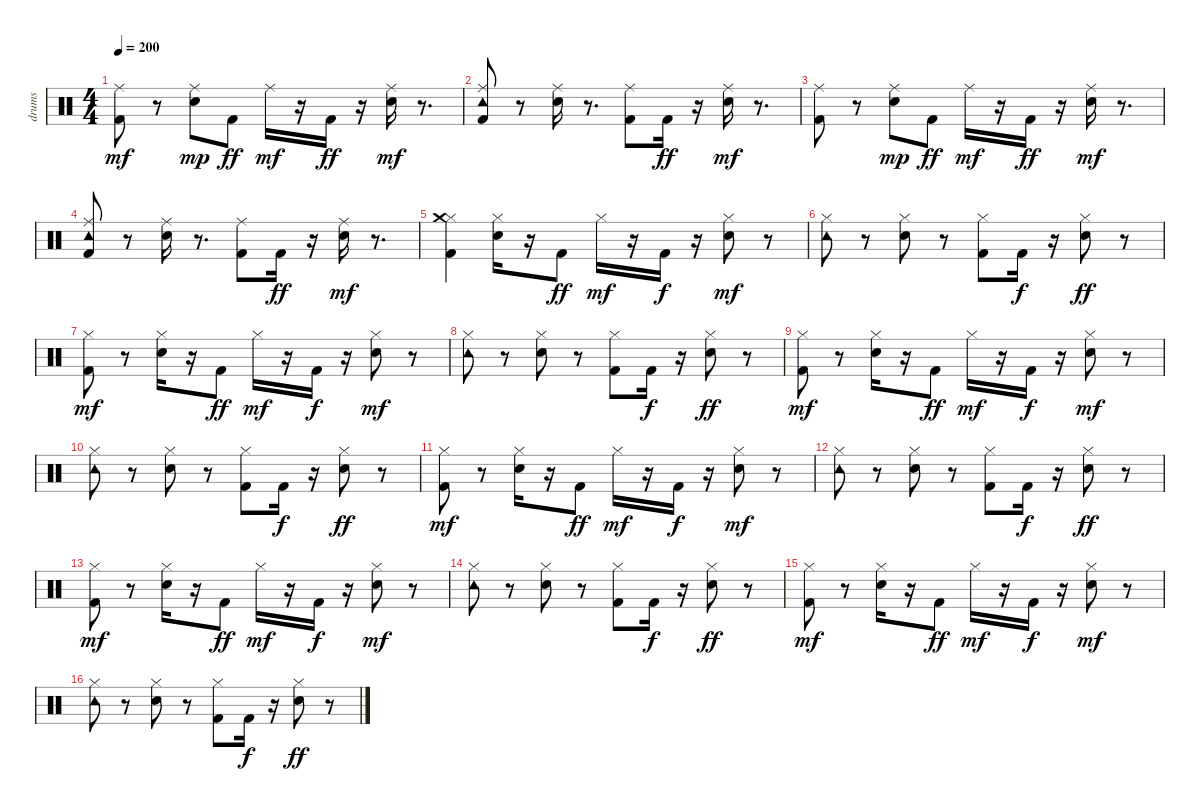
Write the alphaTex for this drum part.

\track ("drums" "drums") {instrument percussion}
\staff {score}
\articulation defaults
\ts (4 4)
\tempo 200
\clef neutral
\ks c
("Kick (hit) 2" "Ride (middle)").8{dy mf} r.8 ("Snare (hit) 2" "Ride (middle)").8{dy mp} "Kick (hit) 2".8{dy ff} "Ride (middle)".16{dy mf} r.16 "Kick (hit) 2".16{dy ff} r.16 ("Snare (hit) 2" "Ride (middle)").16{dy mf} r.8{d} |
("Tambourine (hit)" "Kick (hit) 2" "Ride (middle)").8 r.8 ("Snare (hit) 2" "Ride (middle)").16 r.8{d} ("Kick (hit) 2" "Ride (middle)").8 "Kick (hit) 2".16{dy ff} r.16 ("Snare (hit) 2" "Ride (middle)").16{dy mf} r.8{d} |
("Kick (hit) 2" "Ride (middle)").8 r.8 ("Snare (hit) 2" "Ride (middle)").8{dy mp} "Kick (hit) 2".8{dy ff} "Ride (middle)".16{dy mf} r.16 "Kick (hit) 2".16{dy ff} r.16 ("Snare (hit) 2" "Ride (middle)").16{dy mf} r.8{d} |
("Tambourine (hit)" "Kick (hit) 2" "Ride (middle)").8 r.8 ("Snare (hit) 2" "Ride (middle)").16 r.8{d} ("Kick (hit) 2" "Ride (middle)").8 "Kick (hit) 2".16{dy ff} r.16 ("Snare (hit) 2" "Ride (middle)").16{dy mf} r.8{d} |
("Kick (hit) 2" "Hi-Hat (closed)" "Crash medium (hit)").4 ("Snare (hit) 2" "Hi-Hat (closed)").16 r.16 "Kick (hit) 2".8{dy ff} "Hi-Hat (closed)".16{dy mf} r.16 "Kick (hit) 2".16{dy f} r.16 ("Snare (hit) 2" "Hi-Hat (closed)").8{dy mf} r.8 |
("Tambourine (hit)" "Hi-Hat (closed)").8 r.8 ("Snare (hit) 2" "Hi-Hat (closed)").8 r.8 ("Kick (hit) 2" "Hi-Hat (closed)").8 "Kick (hit) 2".16{dy f} r.16 ("Snare (hit) 2" "Hi-Hat (closed)").8{dy ff} r.8 |
("Kick (hit) 2" "Hi-Hat (closed)").8{dy mf} r.8 ("Snare (hit) 2" "Hi-Hat (closed)").16 r.16 "Kick (hit) 2".8{dy ff} "Hi-Hat (closed)".16{dy mf} r.16 "Kick (hit) 2".16{dy f} r.16 ("Snare (hit) 2" "Hi-Hat (closed)").8{dy mf} r.8 |
("Tambourine (hit)" "Hi-Hat (closed)").8 r.8 ("Snare (hit) 2" "Hi-Hat (closed)").8 r.8 ("Kick (hit) 2" "Hi-Hat (closed)").8 "Kick (hit) 2".16{dy f} r.16 ("Snare (hit) 2" "Hi-Hat (closed)").8{dy ff} r.8 |
("Kick (hit) 2" "Hi-Hat (closed)").8{dy mf} r.8 ("Snare (hit) 2" "Hi-Hat (closed)").16 r.16 "Kick (hit) 2".8{dy ff} "Hi-Hat (closed)".16{dy mf} r.16 "Kick (hit) 2".16{dy f} r.16 ("Snare (hit) 2" "Hi-Hat (closed)").8{dy mf} r.8 |
("Tambourine (hit)" "Hi-Hat (closed)").8 r.8 ("Snare (hit) 2" "Hi-Hat (closed)").8 r.8 ("Kick (hit) 2" "Hi-Hat (closed)").8 "Kick (hit) 2".16{dy f} r.16 ("Snare (hit) 2" "Hi-Hat (closed)").8{dy ff} r.8 |
("Kick (hit) 2" "Hi-Hat (closed)").8{dy mf} r.8 ("Snare (hit) 2" "Hi-Hat (closed)").16 r.16 "Kick (hit) 2".8{dy ff} "Hi-Hat (closed)".16{dy mf} r.16 "Kick (hit) 2".16{dy f} r.16 ("Snare (hit) 2" "Hi-Hat (closed)").8{dy mf} r.8 |
("Tambourine (hit)" "Hi-Hat (closed)").8 r.8 ("Snare (hit) 2" "Hi-Hat (closed)").8 r.8 ("Kick (hit) 2" "Hi-Hat (closed)").8 "Kick (hit) 2".16{dy f} r.16 ("Snare (hit) 2" "Hi-Hat (closed)").8{dy ff} r.8 |
("Kick (hit) 2" "Hi-Hat (closed)").8{dy mf} r.8 ("Snare (hit) 2" "Hi-Hat (closed)").16 r.16 "Kick (hit) 2".8{dy ff} "Hi-Hat (closed)".16{dy mf} r.16 "Kick (hit) 2".16{dy f} r.16 ("Snare (hit) 2" "Hi-Hat (closed)").8{dy mf} r.8 |
("Tambourine (hit)" "Hi-Hat (closed)").8 r.8 ("Snare (hit) 2" "Hi-Hat (closed)").8 r.8 ("Kick (hit) 2" "Hi-Hat (closed)").8 "Kick (hit) 2".16{dy f} r.16 ("Snare (hit) 2" "Hi-Hat (closed)").8{dy ff} r.8 |
("Kick (hit) 2" "Hi-Hat (closed)").8{dy mf} r.8 ("Snare (hit) 2" "Hi-Hat (closed)").16 r.16 "Kick (hit) 2".8{dy ff} "Hi-Hat (closed)".16{dy mf} r.16 "Kick (hit) 2".16{dy f} r.16 ("Snare (hit) 2" "Hi-Hat (closed)").8{dy mf} r.8 |
("Tambourine (hit)" "Hi-Hat (closed)").8 r.8 ("Snare (hit) 2" "Hi-Hat (closed)").8 r.8 ("Kick (hit) 2" "Hi-Hat (closed)").8 "Kick (hit) 2".16{dy f} r.16 ("Snare (hit) 2" "Hi-Hat (closed)").8{dy ff} r.8
